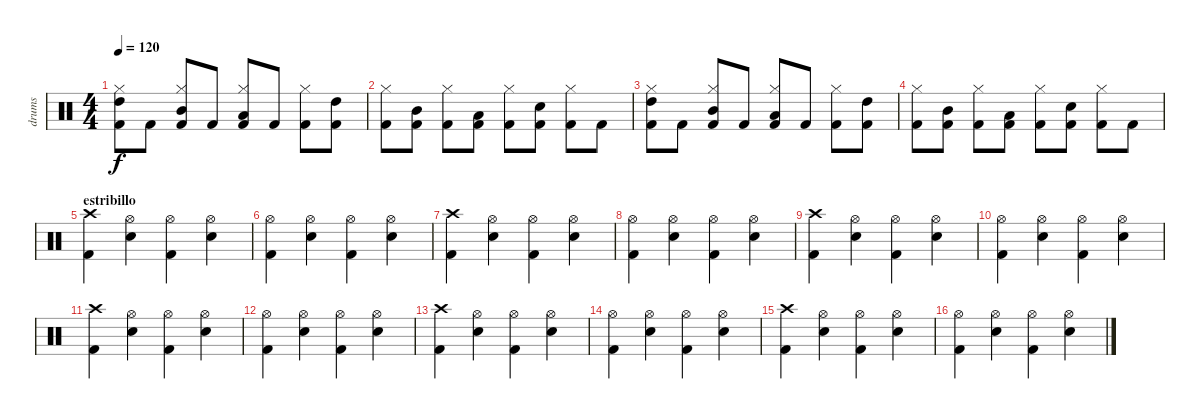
\track ("drums" "drums") {instrument percussion}
\staff {score}
\articulation defaults
\ts (4 4)
\tempo 120
\clef neutral
\ks c
("Kick (hit) 2" "High Tom (hit)" "Hi-Hat (closed)").8{dy f} "Kick (hit) 2".8 ("Kick (hit) 2" "Mid Tom (hit)" "Hi-Hat (closed)").8 "Kick (hit) 2".8 ("Kick (hit) 2" "Low Tom (hit)" "Hi-Hat (closed)").8 "Kick (hit) 2".8 ("Kick (hit) 2" "Hi-Hat (closed)").8 ("Kick (hit) 2" "High Tom (hit)").8 |
("Kick (hit) 2" "Hi-Hat (closed)").8 ("Kick (hit) 2" "Mid Tom (hit)").8 ("Kick (hit) 2" "Hi-Hat (closed)").8 ("Kick (hit) 2" "Low Tom (hit)").8 ("Kick (hit) 2" "Hi-Hat (closed)").8 ("Snare (hit) 2" "Kick (hit) 2").8 ("Kick (hit) 2" "Hi-Hat (closed)").8 "Kick (hit) 2".8 |
("Kick (hit) 2" "High Tom (hit)" "Hi-Hat (closed)").8 "Kick (hit) 2".8 ("Kick (hit) 2" "Mid Tom (hit)" "Hi-Hat (closed)").8 "Kick (hit) 2".8 ("Kick (hit) 2" "Low Tom (hit)" "Hi-Hat (closed)").8 "Kick (hit) 2".8 ("Kick (hit) 2" "Hi-Hat (closed)").8 ("Kick (hit) 2" "High Tom (hit)").8 |
("Kick (hit) 2" "Hi-Hat (closed)").8 ("Kick (hit) 2" "Mid Tom (hit)").8 ("Kick (hit) 2" "Hi-Hat (closed)").8 ("Kick (hit) 2" "Low Tom (hit)").8 ("Kick (hit) 2" "Hi-Hat (closed)").8 ("Snare (hit) 2" "Kick (hit) 2").8 ("Kick (hit) 2" "Hi-Hat (closed)").8 "Kick (hit) 2".8 |
\section ("" "estribillo")
("Kick (hit) 2" "Crash high (hit)").4 ("Snare (hit) 2" "Hi-Hat (open)").4 ("Kick (hit) 2" "Hi-Hat (open)").4 ("Snare (hit) 2" "Hi-Hat (open)").4 |
("Kick (hit) 2" "Hi-Hat (open)").4 ("Snare (hit) 2" "Hi-Hat (open)").4 ("Kick (hit) 2" "Hi-Hat (open)").4 ("Snare (hit) 2" "Hi-Hat (open)").4 |
("Kick (hit) 2" "Crash high (hit)").4 ("Snare (hit) 2" "Hi-Hat (open)").4 ("Kick (hit) 2" "Hi-Hat (open)").4 ("Snare (hit) 2" "Hi-Hat (open)").4 |
("Kick (hit) 2" "Hi-Hat (open)").4 ("Snare (hit) 2" "Hi-Hat (open)").4 ("Kick (hit) 2" "Hi-Hat (open)").4 ("Snare (hit) 2" "Hi-Hat (open)").4 |
("Kick (hit) 2" "Crash high (hit)").4 ("Snare (hit) 2" "Hi-Hat (open)").4 ("Kick (hit) 2" "Hi-Hat (open)").4 ("Snare (hit) 2" "Hi-Hat (open)").4 |
("Kick (hit) 2" "Hi-Hat (open)").4 ("Snare (hit) 2" "Hi-Hat (open)").4 ("Kick (hit) 2" "Hi-Hat (open)").4 ("Snare (hit) 2" "Hi-Hat (open)").4 |
("Kick (hit) 2" "Crash high (hit)").4 ("Snare (hit) 2" "Hi-Hat (open)").4 ("Kick (hit) 2" "Hi-Hat (open)").4 ("Snare (hit) 2" "Hi-Hat (open)").4 |
("Kick (hit) 2" "Hi-Hat (open)").4 ("Snare (hit) 2" "Hi-Hat (open)").4 ("Kick (hit) 2" "Hi-Hat (open)").4 ("Snare (hit) 2" "Hi-Hat (open)").4 |
("Kick (hit) 2" "Crash high (hit)").4 ("Snare (hit) 2" "Hi-Hat (open)").4 ("Kick (hit) 2" "Hi-Hat (open)").4 ("Snare (hit) 2" "Hi-Hat (open)").4 |
("Kick (hit) 2" "Hi-Hat (open)").4 ("Snare (hit) 2" "Hi-Hat (open)").4 ("Kick (hit) 2" "Hi-Hat (open)").4 ("Snare (hit) 2" "Hi-Hat (open)").4 |
("Kick (hit) 2" "Crash high (hit)").4 ("Snare (hit) 2" "Hi-Hat (open)").4 ("Kick (hit) 2" "Hi-Hat (open)").4 ("Snare (hit) 2" "Hi-Hat (open)").4 |
("Kick (hit) 2" "Hi-Hat (open)").4 ("Snare (hit) 2" "Hi-Hat (open)").4 ("Kick (hit) 2" "Hi-Hat (open)").4 ("Snare (hit) 2" "Hi-Hat (open)").4
